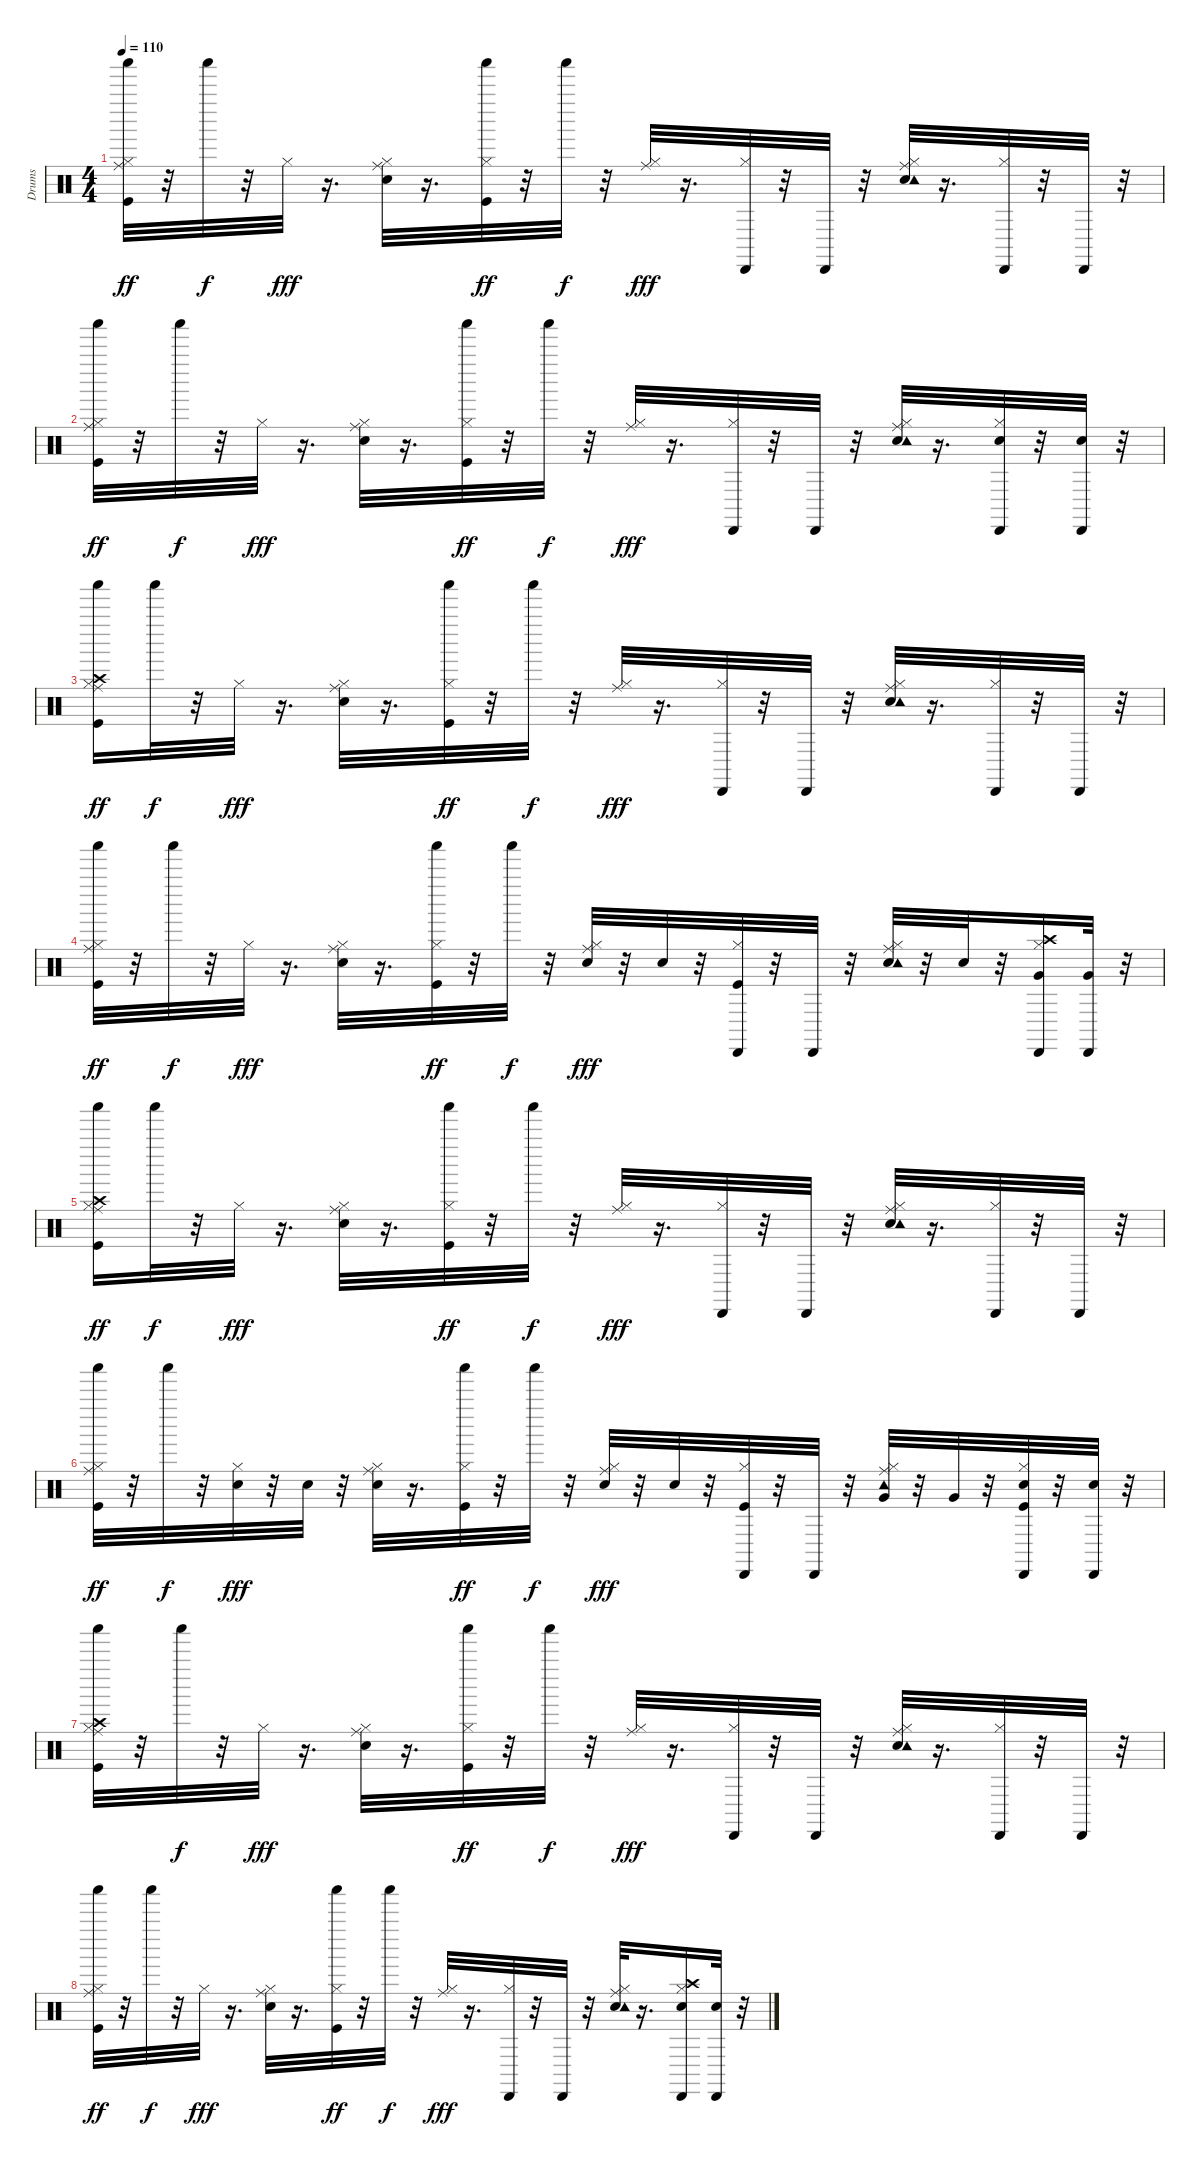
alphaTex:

\track ("Drums               " "Drums     ") {instrument percussion}
\staff {score}
\articulation defaults
\ts (4 4)
\tempo 110
\clef neutral
\ks c
("Kick (hit)" "Hi-Hat (closed)" "Ride (middle)" "Shaker (hit)").32{dy ff} r.32 "Shaker (hit)".32{dy f} r.32 "Hi-Hat (closed)".32{dy fff} r.16{d} ("Electric Snare (hit)" "Hi-Hat (closed)" "Ride (middle)").32 r.16{d} ("Kick (hit)" "Hi-Hat (closed)" "Shaker (hit)").32{dy ff} r.32 "Shaker (hit)".32{dy f} r.32 ("Hi-Hat (closed)" "Ride (middle)").32{dy fff} r.16{d} ("Hi-Hat (closed)" "Cabasa (hit)").32 r.32 "Cabasa (hit)".32 r.32 ("Electric Snare (hit)" "Hi-Hat (closed)" "Ride (middle)" "Tambourine (hit)").32 r.16{d} ("Hi-Hat (closed)" "Cabasa (hit)").32 r.32 "Cabasa (hit)".32 r.32 |
("Kick (hit)" "Hi-Hat (closed)" "Ride (middle)" "Shaker (hit)").32{dy ff} r.32 "Shaker (hit)".32{dy f} r.32 "Hi-Hat (closed)".32{dy fff} r.16{d} ("Electric Snare (hit)" "Hi-Hat (closed)" "Ride (middle)").32 r.16{d} ("Kick (hit)" "Hi-Hat (closed)" "Shaker (hit)").32{dy ff} r.32 "Shaker (hit)".32{dy f} r.32 ("Hi-Hat (closed)" "Ride (middle)").32{dy fff} r.16{d} ("Hi-Hat (closed)" "Cabasa (hit)").32 r.32 "Cabasa (hit)".32 r.32 ("Electric Snare (hit)" "Hi-Hat (closed)" "Ride (middle)" "Tambourine (hit)").32 r.16{d} ("Electric Snare (hit)" "Hi-Hat (closed)" "Cabasa (hit)").32 r.32 ("Electric Snare (hit)" "Cabasa (hit)").32 r.32 |
("Kick (hit)" "Hi-Hat (closed)" "Crash high (hit)" "Ride (middle)" "Shaker (hit)").16{dy ff} "Shaker (hit)".32{dy f} r.32 "Hi-Hat (closed)".32{dy fff} r.16{d} ("Electric Snare (hit)" "Hi-Hat (closed)" "Ride (middle)").32 r.16{d} ("Kick (hit)" "Hi-Hat (closed)" "Shaker (hit)").32{dy ff} r.32 "Shaker (hit)".32{dy f} r.32 ("Hi-Hat (closed)" "Ride (middle)").32{dy fff} r.16{d} ("Hi-Hat (closed)" "Cabasa (hit)").32 r.32 "Cabasa (hit)".32 r.32 ("Electric Snare (hit)" "Hi-Hat (closed)" "Ride (middle)" "Tambourine (hit)").32 r.16{d} ("Hi-Hat (closed)" "Cabasa (hit)").32 r.32 "Cabasa (hit)".32 r.32 |
("Kick (hit)" "Hi-Hat (closed)" "Ride (middle)" "Shaker (hit)").32{dy ff} r.32 "Shaker (hit)".32{dy f} r.32 "Hi-Hat (closed)".32{dy fff} r.16{d} ("Electric Snare (hit)" "Hi-Hat (closed)" "Ride (middle)").32 r.16{d} ("Kick (hit)" "Hi-Hat (closed)" "Shaker (hit)").32{dy ff} r.32 "Shaker (hit)".32{dy f} r.32 ("Electric Snare (hit)" "Hi-Hat (closed)" "Ride (middle)").32{dy fff} r.32 "Electric Snare (hit)".32 r.32 ("Kick (hit)" "Hi-Hat (closed)" "Cabasa (hit)").32 r.32 "Cabasa (hit)".32 r.32 ("Electric Snare (hit)" "Hi-Hat (closed)" "Ride (middle)" "Tambourine (hit)").32 r.32 "Electric Snare (hit)".32 r.32 ("Hi-Hat (closed)" "Very Low Tom (hit)" "Crash high (hit)" "Cabasa (hit)").16 ("Very Low Tom (hit)" "Cabasa (hit)").32 r.32 |
("Kick (hit)" "Hi-Hat (closed)" "Crash high (hit)" "Ride (middle)" "Shaker (hit)").16{dy ff} "Shaker (hit)".32{dy f} r.32 "Hi-Hat (closed)".32{dy fff} r.16{d} ("Electric Snare (hit)" "Hi-Hat (closed)" "Ride (middle)").32 r.16{d} ("Kick (hit)" "Hi-Hat (closed)" "Shaker (hit)").32{dy ff} r.32 "Shaker (hit)".32{dy f} r.32 ("Hi-Hat (closed)" "Ride (middle)").32{dy fff} r.16{d} ("Hi-Hat (closed)" "Cabasa (hit)").32 r.32 "Cabasa (hit)".32 r.32 ("Electric Snare (hit)" "Hi-Hat (closed)" "Ride (middle)" "Tambourine (hit)").32 r.16{d} ("Hi-Hat (closed)" "Cabasa (hit)").32 r.32 "Cabasa (hit)".32 r.32 |
("Kick (hit)" "Hi-Hat (closed)" "Ride (middle)" "Shaker (hit)").32{dy ff} r.32 "Shaker (hit)".32{dy f} r.32 ("Electric Snare (hit)" "Hi-Hat (closed)").32{dy fff} r.32 "Electric Snare (hit)".32 r.32 ("Electric Snare (hit)" "Hi-Hat (closed)" "Ride (middle)").32 r.16{d} ("Kick (hit)" "Hi-Hat (closed)" "Shaker (hit)").32{dy ff} r.32 "Shaker (hit)".32{dy f} r.32 ("Electric Snare (hit)" "Hi-Hat (closed)" "Ride (middle)").32{dy fff} r.32 "Electric Snare (hit)".32 r.32 ("Kick (hit)" "Hi-Hat (closed)" "Cabasa (hit)").32 r.32 "Cabasa (hit)".32 r.32 ("Hi-Hat (closed)" "Very Low Tom (hit)" "Ride (middle)" "Tambourine (hit)").32 r.32 "Very Low Tom (hit)".32 r.32 ("Kick (hit)" "Electric Snare (hit)" "Hi-Hat (closed)" "Cabasa (hit)").32 r.32 ("Electric Snare (hit)" "Cabasa (hit)").32 r.32 |
("Kick (hit)" "Hi-Hat (closed)" "Shaker (hit)" "Crash high (hit)" "Ride (middle)").32 r.32 "Shaker (hit)".32{dy f} r.32 "Hi-Hat (closed)".32{dy fff} r.16{d} ("Electric Snare (hit)" "Hi-Hat (closed)" "Ride (middle)").32 r.16{d} ("Kick (hit)" "Hi-Hat (closed)" "Shaker (hit)").32{dy ff} r.32 "Shaker (hit)".32{dy f} r.32 ("Hi-Hat (closed)" "Ride (middle)").32{dy fff} r.16{d} ("Hi-Hat (closed)" "Cabasa (hit)").32 r.32 "Cabasa (hit)".32 r.32 ("Electric Snare (hit)" "Hi-Hat (closed)" "Ride (middle)" "Tambourine (hit)").32 r.16{d} ("Hi-Hat (closed)" "Cabasa (hit)").32 r.32 "Cabasa (hit)".32 r.32 |
("Kick (hit)" "Hi-Hat (closed)" "Ride (middle)" "Shaker (hit)").32{dy ff} r.32 "Shaker (hit)".32{dy f} r.32 "Hi-Hat (closed)".32{dy fff} r.16{d} ("Electric Snare (hit)" "Hi-Hat (closed)" "Ride (middle)").32 r.16{d} ("Kick (hit)" "Hi-Hat (closed)" "Shaker (hit)").32{dy ff} r.32 "Shaker (hit)".32{dy f} r.32 ("Hi-Hat (closed)" "Ride (middle)").32{dy fff} r.16{d} ("Hi-Hat (closed)" "Cabasa (hit)").32 r.32 "Cabasa (hit)".32 r.32 ("Electric Snare (hit)" "Hi-Hat (closed)" "Ride (middle)" "Tambourine (hit)").32 r.16{d} ("Electric Snare (hit)" "Hi-Hat (closed)" "Crash high (hit)" "Cabasa (hit)").16 ("Electric Snare (hit)" "Cabasa (hit)").32 r.32
